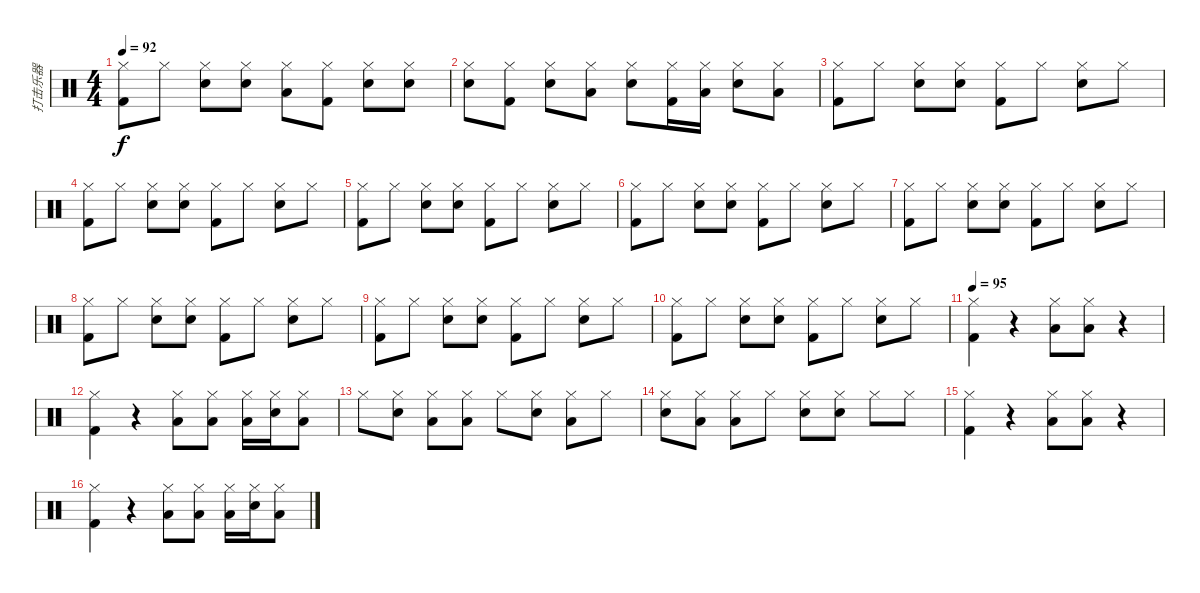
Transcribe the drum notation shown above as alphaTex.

\track ("打击乐器" "打击乐器") {instrument percussion}
\staff {score}
\articulation defaults
\ts (4 4)
\tempo 92
\clef neutral
\ks c
("Hi-Hat (closed)" "Kick (hit) 2").8{dy f} "Hi-Hat (closed)".8 ("Hi-Hat (closed)" "Electric Snare (hit)").8 ("Hi-Hat (closed)" "Electric Snare (hit)").8 ("Hi-Hat (closed)" "Low Tom (hit)").8 ("Hi-Hat (closed)" "Kick (hit) 2").8 ("Hi-Hat (closed)" "Electric Snare (hit)").8 ("Hi-Hat (closed)" "Electric Snare (hit)").8 |
("Hi-Hat (closed)" "Electric Snare (hit)").8 ("Hi-Hat (closed)" "Kick (hit) 2").8 ("Hi-Hat (closed)" "Electric Snare (hit)").8 ("Hi-Hat (closed)" "Low Tom (hit)").8 ("Hi-Hat (closed)" "Electric Snare (hit)").8 ("Hi-Hat (closed)" "Kick (hit) 2").16 ("Hi-Hat (closed)" "Low Tom (hit)").16 ("Hi-Hat (closed)" "Electric Snare (hit)").8 ("Hi-Hat (closed)" "Low Tom (hit)").8 |
("Hi-Hat (closed)" "Kick (hit) 2").8 "Hi-Hat (closed)".8 ("Hi-Hat (closed)" "Electric Snare (hit)").8 ("Hi-Hat (closed)" "Electric Snare (hit)").8 ("Hi-Hat (closed)" "Kick (hit) 2").8 "Hi-Hat (closed)".8 ("Hi-Hat (closed)" "Electric Snare (hit)").8 "Hi-Hat (closed)".8 |
("Hi-Hat (closed)" "Kick (hit) 2").8 "Hi-Hat (closed)".8 ("Hi-Hat (closed)" "Electric Snare (hit)").8 ("Hi-Hat (closed)" "Electric Snare (hit)").8 ("Hi-Hat (closed)" "Kick (hit) 2").8 "Hi-Hat (closed)".8 ("Hi-Hat (closed)" "Electric Snare (hit)").8 "Hi-Hat (closed)".8 |
("Hi-Hat (closed)" "Kick (hit) 2").8 "Hi-Hat (closed)".8 ("Hi-Hat (closed)" "Electric Snare (hit)").8 ("Hi-Hat (closed)" "Electric Snare (hit)").8 ("Hi-Hat (closed)" "Kick (hit) 2").8 "Hi-Hat (closed)".8 ("Hi-Hat (closed)" "Electric Snare (hit)").8 "Hi-Hat (closed)".8 |
("Hi-Hat (closed)" "Kick (hit) 2").8 "Hi-Hat (closed)".8 ("Hi-Hat (closed)" "Electric Snare (hit)").8 ("Hi-Hat (closed)" "Electric Snare (hit)").8 ("Hi-Hat (closed)" "Kick (hit) 2").8 "Hi-Hat (closed)".8 ("Hi-Hat (closed)" "Electric Snare (hit)").8 "Hi-Hat (closed)".8 |
("Hi-Hat (closed)" "Kick (hit) 2").8 "Hi-Hat (closed)".8 ("Hi-Hat (closed)" "Electric Snare (hit)").8 ("Hi-Hat (closed)" "Electric Snare (hit)").8 ("Hi-Hat (closed)" "Kick (hit) 2").8 "Hi-Hat (closed)".8 ("Hi-Hat (closed)" "Electric Snare (hit)").8 "Hi-Hat (closed)".8 |
("Hi-Hat (closed)" "Kick (hit) 2").8 "Hi-Hat (closed)".8 ("Hi-Hat (closed)" "Electric Snare (hit)").8 ("Hi-Hat (closed)" "Electric Snare (hit)").8 ("Hi-Hat (closed)" "Kick (hit) 2").8 "Hi-Hat (closed)".8 ("Hi-Hat (closed)" "Electric Snare (hit)").8 "Hi-Hat (closed)".8 |
("Hi-Hat (closed)" "Kick (hit) 2").8 "Hi-Hat (closed)".8 ("Hi-Hat (closed)" "Electric Snare (hit)").8 ("Hi-Hat (closed)" "Electric Snare (hit)").8 ("Hi-Hat (closed)" "Kick (hit) 2").8 "Hi-Hat (closed)".8 ("Hi-Hat (closed)" "Electric Snare (hit)").8 "Hi-Hat (closed)".8 |
("Hi-Hat (closed)" "Kick (hit) 2").8 "Hi-Hat (closed)".8 ("Hi-Hat (closed)" "Electric Snare (hit)").8 ("Hi-Hat (closed)" "Electric Snare (hit)").8 ("Hi-Hat (closed)" "Kick (hit) 2").8 "Hi-Hat (closed)".8 ("Hi-Hat (closed)" "Electric Snare (hit)").8 "Hi-Hat (closed)".8 |
\tempo 95
("Hi-Hat (closed)" "Kick (hit) 2").4 r.4 ("Hi-Hat (closed)" "Low Tom (hit)").8 ("Hi-Hat (closed)" "Low Tom (hit)").8 r.4 |
("Hi-Hat (closed)" "Kick (hit) 2").4 r.4 ("Hi-Hat (closed)" "Low Tom (hit)").8 ("Hi-Hat (closed)" "Low Tom (hit)").8 ("Hi-Hat (closed)" "Low Tom (hit)").16 ("Hi-Hat (closed)" "Electric Snare (hit)").16 ("Hi-Hat (closed)" "Low Tom (hit)").8 |
"Hi-Hat (closed)".8 ("Hi-Hat (closed)" "Electric Snare (hit)").8 ("Hi-Hat (closed)" "Low Tom (hit)").8 ("Hi-Hat (closed)" "Low Tom (hit)").8 "Hi-Hat (closed)".8 ("Hi-Hat (closed)" "Electric Snare (hit)").8 ("Hi-Hat (closed)" "Low Tom (hit)").8 "Hi-Hat (closed)".8 |
("Hi-Hat (closed)" "Electric Snare (hit)").8 ("Hi-Hat (closed)" "Low Tom (hit)").8 ("Hi-Hat (closed)" "Low Tom (hit)").8 "Hi-Hat (closed)".8 ("Hi-Hat (closed)" "Electric Snare (hit)").8 ("Hi-Hat (closed)" "Electric Snare (hit)").8 "Hi-Hat (closed)".8 "Hi-Hat (closed)".8 |
("Hi-Hat (closed)" "Kick (hit) 2").4 r.4 ("Hi-Hat (closed)" "Low Tom (hit)").8 ("Hi-Hat (closed)" "Low Tom (hit)").8 r.4 |
("Hi-Hat (closed)" "Kick (hit) 2").4 r.4 ("Hi-Hat (closed)" "Low Tom (hit)").8 ("Hi-Hat (closed)" "Low Tom (hit)").8 ("Hi-Hat (closed)" "Low Tom (hit)").16 ("Hi-Hat (closed)" "Electric Snare (hit)").16 ("Hi-Hat (closed)" "Low Tom (hit)").8
